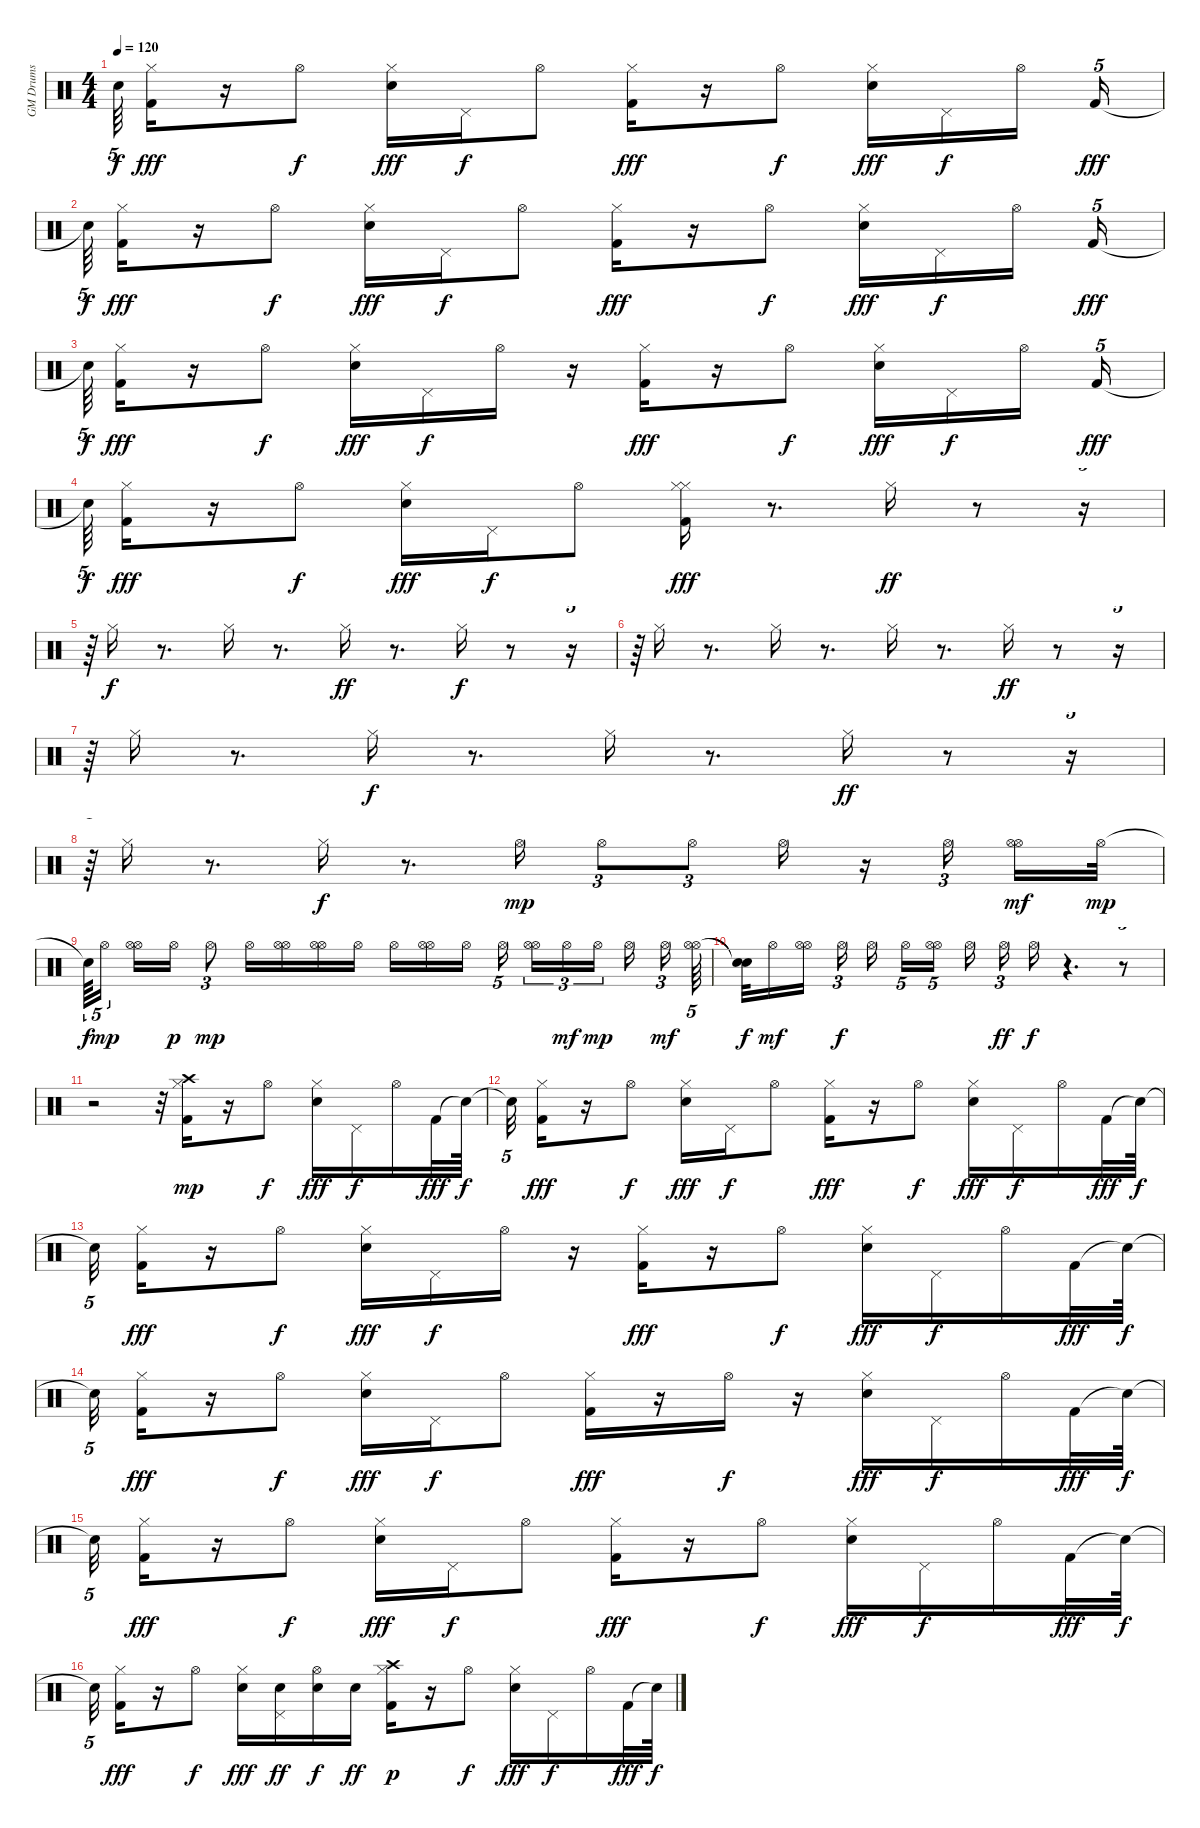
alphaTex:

\track ("GM Drums" "GM Drums") {instrument percussion}
\staff {score}
\articulation defaults
\ts (4 4)
\tempo 120
\clef neutral
\ks c "Snare (hit)"{t}.64{tu (5 4) dy f}
("Kick (hit) 2" "Hi-Hat (closed)").16{dy fff} r.16 "Hi-Hat (open)".8{dy f} ("Electric Snare (hit)" "Hi-Hat (closed)").16{dy fff} "Pedal Hi-Hat (hit)".16{dy f} "Hi-Hat (open)".8 ("Kick (hit) 2" "Hi-Hat (closed)").16{dy fff} r.16 "Hi-Hat (open)".8{dy f} ("Electric Snare (hit)" "Hi-Hat (closed)").16{dy fff} "Pedal Hi-Hat (hit)".16{dy f} "Hi-Hat (open)".16 "Kick (hit) 2".16{tu (5 4) dy fff} |
"Snare (hit)"{t}.64{tu (5 4) dy f} ("Kick (hit) 2" "Hi-Hat (closed)").16{dy fff} r.16 "Hi-Hat (open)".8{dy f} ("Electric Snare (hit)" "Hi-Hat (closed)").16{dy fff} "Pedal Hi-Hat (hit)".16{dy f} "Hi-Hat (open)".8 ("Kick (hit) 2" "Hi-Hat (closed)").16{dy fff} r.16 "Hi-Hat (open)".8{dy f} ("Electric Snare (hit)" "Hi-Hat (closed)").16{dy fff} "Pedal Hi-Hat (hit)".16{dy f} "Hi-Hat (open)".16 "Kick (hit) 2".16{tu (5 4) dy fff} |
"Snare (hit)"{t}.64{tu (5 4) dy f} ("Kick (hit) 2" "Hi-Hat (closed)").16{dy fff} r.16 "Hi-Hat (open)".8{dy f} ("Electric Snare (hit)" "Hi-Hat (closed)").16{dy fff} "Pedal Hi-Hat (hit)".16{dy f} "Hi-Hat (open)".16 r.16 ("Kick (hit) 2" "Hi-Hat (closed)").16{dy fff} r.16 "Hi-Hat (open)".8{dy f} ("Electric Snare (hit)" "Hi-Hat (closed)").16{dy fff} "Pedal Hi-Hat (hit)".16{dy f} "Hi-Hat (open)".16 "Kick (hit) 2".16{tu (5 4) dy fff} |
"Snare (hit)"{t}.64{tu (5 4) dy f} ("Kick (hit) 2" "Hi-Hat (closed)").16{dy fff} r.16 "Hi-Hat (open)".8{dy f} ("Electric Snare (hit)" "Hi-Hat (closed)").16{dy fff} "Pedal Hi-Hat (hit)".16{dy f} "Hi-Hat (open)".8 ("Kick (hit) 2" "Hi-Hat (closed)" "Hi-Hat (closed)").16{dy fff} r.8{d} "Hi-Hat (closed)".16{dy ff} r.8 r.16{tu (5 4)} |
r.64{tu (5 4)} "Hi-Hat (closed)".16{dy f} r.8{d} "Hi-Hat (closed)".16 r.8{d} "Hi-Hat (closed)".16{dy ff} r.8{d} "Hi-Hat (closed)".16{dy f} r.8 r.16{tu (5 4)} |
r.64{tu (5 4)} "Hi-Hat (closed)".16 r.8{d} "Hi-Hat (closed)".16 r.8{d} "Hi-Hat (closed)".16 r.8{d} "Hi-Hat (closed)".16{dy ff} r.8 r.16{tu (5 4)} |
r.64{tu (5 4)} "Hi-Hat (closed)".16 r.8{d} "Hi-Hat (closed)".16{dy f} r.8{d} "Hi-Hat (closed)".16 r.8{d} "Hi-Hat (closed)".16{dy ff} r.8 r.16{tu (5 4)} |
r.64{tu (5 4)} "Hi-Hat (closed)".16 r.8{d} "Hi-Hat (closed)".16{dy f} r.8{d} "Hi-Hat (open)".16{dy mp} "Hi-Hat (open)".8{tu (3 2)} "Hi-Hat (open)".8{tu (3 2)} "Hi-Hat (open)".16 r.16 "Hi-Hat (open)".16{tu (3 2)} ("Hi-Hat (open)" "Hi-Hat (open)").16{dy mf} "Hi-Hat (open)".32{dy mp} |
"Snare (hit)"{t}.64{tu (5 4) dy f} "Hi-Hat (open)".16{tu (5 4) dy mp} ("Hi-Hat (open)" "Hi-Hat (open)").16 "Hi-Hat (open)".16{dy p} "Hi-Hat (open)".8{tu (3 2) dy mp} "Hi-Hat (open)".16 ("Hi-Hat (open)" "Hi-Hat (open)").16 ("Hi-Hat (open)" "Hi-Hat (open)").16 "Hi-Hat (open)".16 "Hi-Hat (open)".16 ("Hi-Hat (open)" "Hi-Hat (open)").16 "Hi-Hat (open)".16 "Hi-Hat (open)".16{tu (5 4)} ("Hi-Hat (open)" "Hi-Hat (open)").16{tu (3 2)} "Hi-Hat (open)".16{tu (3 2) dy mf} "Hi-Hat (open)".16{tu (3 2) dy mp} "Hi-Hat (open)".16 "Hi-Hat (open)".16{tu (3 2) dy mf} ("Hi-Hat (open)" "Hi-Hat (open)").64{tu (5 4)} |
("Snare (hit)"{t} "Snare (hit)"{t}).32{dy f} "Hi-Hat (open)".16{dy mf} ("Hi-Hat (open)" "Hi-Hat (open)").16 "Hi-Hat (open)".16{tu (3 2) dy f} "Hi-Hat (open)".16 "Hi-Hat (open)".16{tu (5 4)} ("Hi-Hat (open)" "Hi-Hat (open)").16{tu (5 4)} "Hi-Hat (open)".16 "Hi-Hat (open)".16{tu (3 2) dy ff} "Hi-Hat (open)".16{dy f} r.4{d} r.8{tu (5 4)} |
r.2 r.32{tu (5 4)} ("Kick (hit) 2" "Hi-Hat (closed)" "Crash high (hit)").16{dy mp} r.16 "Hi-Hat (open)".8{dy f} ("Electric Snare (hit)" "Hi-Hat (closed)").16{dy fff} "Pedal Hi-Hat (hit)".16{dy f} "Hi-Hat (open)".16 "Kick (hit) 2".32{dy fff} "Snare (hit)"{t}.64{dy f} |
"Snare (hit)"{t}.32{tu (5 4)} ("Kick (hit) 2" "Hi-Hat (closed)").16{dy fff} r.16 "Hi-Hat (open)".8{dy f} ("Electric Snare (hit)" "Hi-Hat (closed)").16{dy fff} "Pedal Hi-Hat (hit)".16{dy f} "Hi-Hat (open)".8 ("Kick (hit) 2" "Hi-Hat (closed)").16{dy fff} r.16 "Hi-Hat (open)".8{dy f} ("Electric Snare (hit)" "Hi-Hat (closed)").16{dy fff} "Pedal Hi-Hat (hit)".16{dy f} "Hi-Hat (open)".16 "Kick (hit) 2".32{dy fff} "Snare (hit)"{t}.64{dy f} |
"Snare (hit)"{t}.32{tu (5 4)} ("Kick (hit) 2" "Hi-Hat (closed)").16{dy fff} r.16 "Hi-Hat (open)".8{dy f} ("Electric Snare (hit)" "Hi-Hat (closed)").16{dy fff} "Pedal Hi-Hat (hit)".16{dy f} "Hi-Hat (open)".16 r.16 ("Kick (hit) 2" "Hi-Hat (closed)").16{dy fff} r.16 "Hi-Hat (open)".8{dy f} ("Electric Snare (hit)" "Hi-Hat (closed)").16{dy fff} "Pedal Hi-Hat (hit)".16{dy f} "Hi-Hat (open)".16 "Kick (hit) 2".32{dy fff} "Snare (hit)"{t}.64{dy f} |
"Snare (hit)"{t}.32{tu (5 4)} ("Kick (hit) 2" "Hi-Hat (closed)").16{dy fff} r.16 "Hi-Hat (open)".8{dy f} ("Electric Snare (hit)" "Hi-Hat (closed)").16{dy fff} "Pedal Hi-Hat (hit)".16{dy f} "Hi-Hat (open)".8 ("Kick (hit) 2" "Hi-Hat (closed)").16{dy fff} r.16 "Hi-Hat (open)".16{dy f} r.16 ("Electric Snare (hit)" "Hi-Hat (closed)").16{dy fff} "Pedal Hi-Hat (hit)".16{dy f} "Hi-Hat (open)".16 "Kick (hit) 2".32{dy fff} "Snare (hit)"{t}.64{dy f} |
"Snare (hit)"{t}.32{tu (5 4)} ("Kick (hit) 2" "Hi-Hat (closed)").16{dy fff} r.16 "Hi-Hat (open)".8{dy f} ("Electric Snare (hit)" "Hi-Hat (closed)").16{dy fff} "Pedal Hi-Hat (hit)".16{dy f} "Hi-Hat (open)".8 ("Kick (hit) 2" "Hi-Hat (closed)").16{dy fff} r.16 "Hi-Hat (open)".8{dy f} ("Electric Snare (hit)" "Hi-Hat (closed)").16{dy fff} "Pedal Hi-Hat (hit)".16{dy f} "Hi-Hat (open)".16 "Kick (hit) 2".32{dy fff} "Snare (hit)"{t}.64{dy f} |
"Snare (hit)"{t}.32{tu (5 4)} ("Kick (hit) 2" "Hi-Hat (closed)").16{dy fff} r.16 "Hi-Hat (open)".8{dy f} ("Electric Snare (hit)" "Hi-Hat (closed)").16{dy fff} ("Electric Snare (hit)" "Pedal Hi-Hat (hit)").16{dy ff} ("Electric Snare (hit)" "Hi-Hat (open)").16{dy f} "Electric Snare (hit)".16{dy ff} ("Kick (hit) 2" "Hi-Hat (closed)" "Crash high (hit)").16{dy p} r.16 "Hi-Hat (open)".8{dy f} ("Electric Snare (hit)" "Hi-Hat (closed)").16{dy fff} "Pedal Hi-Hat (hit)".16{dy f} "Hi-Hat (open)".16 "Kick (hit) 2".32{dy fff} "Snare (hit)"{t}.64{dy f}
